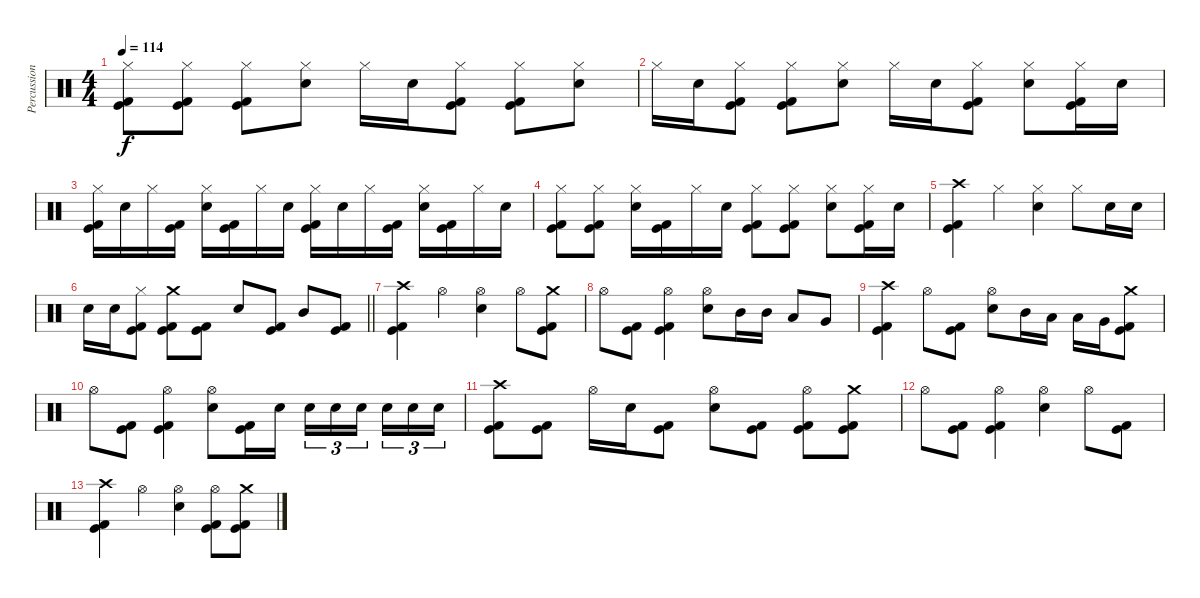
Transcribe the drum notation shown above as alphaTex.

\track ("Percussion" "Percussion") {instrument percussion}
\staff {score}
\articulation defaults
\ts (4 4)
\tempo 114
\clef neutral
\ks c
("Hi-Hat (closed)" "Kick (hit)" "Kick (hit) 2").8{dy f} ("Hi-Hat (closed)" "Kick (hit)" "Kick (hit) 2").8 ("Hi-Hat (closed)" "Kick (hit)" "Kick (hit) 2").8 ("Hi-Hat (closed)" "Electric Snare (hit)").8 "Hi-Hat (closed)".16 "Electric Snare (hit)".16 ("Hi-Hat (closed)" "Kick (hit)" "Kick (hit) 2").8 ("Hi-Hat (closed)" "Kick (hit)" "Kick (hit) 2").8 ("Hi-Hat (closed)" "Electric Snare (hit)").8 |
"Hi-Hat (closed)".16 "Electric Snare (hit)".16 ("Hi-Hat (closed)" "Kick (hit)" "Kick (hit) 2").8 ("Hi-Hat (closed)" "Kick (hit)" "Kick (hit) 2").8 ("Hi-Hat (closed)" "Electric Snare (hit)").8 "Hi-Hat (closed)".16 "Electric Snare (hit)".16 ("Hi-Hat (closed)" "Kick (hit)" "Kick (hit) 2").8 ("Hi-Hat (closed)" "Electric Snare (hit)").8 ("Hi-Hat (closed)" "Kick (hit)" "Kick (hit) 2").16 "Electric Snare (hit)".16 |
("Hi-Hat (closed)" "Kick (hit)" "Kick (hit) 2").16 "Electric Snare (hit)".16 "Hi-Hat (closed)".16 ("Kick (hit)" "Kick (hit) 2").16 ("Hi-Hat (closed)" "Electric Snare (hit)").16 ("Kick (hit)" "Kick (hit) 2").16 "Hi-Hat (closed)".16 "Electric Snare (hit)".16 ("Hi-Hat (closed)" "Kick (hit)" "Kick (hit) 2").16 "Electric Snare (hit)".16 "Hi-Hat (closed)".16 ("Kick (hit)" "Kick (hit) 2").16 ("Hi-Hat (closed)" "Electric Snare (hit)").16 ("Kick (hit)" "Kick (hit) 2").16 "Hi-Hat (closed)".16 "Electric Snare (hit)".16 |
("Hi-Hat (closed)" "Kick (hit)" "Kick (hit) 2").8 ("Hi-Hat (closed)" "Kick (hit)" "Kick (hit) 2").8 ("Hi-Hat (closed)" "Electric Snare (hit)").16 ("Kick (hit)" "Kick (hit) 2").16 "Hi-Hat (closed)".16 "Electric Snare (hit)".16 ("Hi-Hat (closed)" "Kick (hit)" "Kick (hit) 2").8 ("Hi-Hat (closed)" "Kick (hit)" "Kick (hit) 2").8 ("Hi-Hat (closed)" "Electric Snare (hit)").8 ("Hi-Hat (closed)" "Kick (hit)" "Kick (hit) 2").16 "Electric Snare (hit)".16 |
("Crash high (hit)" "Kick (hit)" "Kick (hit) 2").4 "Hi-Hat (closed)".4 ("Hi-Hat (closed)" "Electric Snare (hit)").4 "Hi-Hat (closed)".8 "Electric Snare (hit)".16 "Electric Snare (hit)".16 |
\barLineRight lightlight "Electric Snare (hit)".16 "Electric Snare (hit)".16
("Hi-Hat (closed)" "Kick (hit)" "Kick (hit) 2").8 ("Crash medium (hit)" "Kick (hit)" "Kick (hit) 2").8 ("Kick (hit)" "Kick (hit) 2").8 "Electric Snare (hit)".8 ("Kick (hit)" "Kick (hit) 2").8 "Mid Tom (hit)".8 ("Kick (hit)" "Kick (hit) 2").8 |
\section ("" "")
("Crash high (hit)" "Kick (hit)" "Kick (hit) 2").4 "Hi-Hat (open)".4 ("Hi-Hat (open)" "Electric Snare (hit)").4 "Hi-Hat (open)".8 ("Crash medium (hit)" "Kick (hit)" "Kick (hit) 2").8 |
"Hi-Hat (open)".8 ("Kick (hit)" "Kick (hit) 2").8 ("Hi-Hat (open)" "Kick (hit)" "Kick (hit) 2").4 ("Hi-Hat (open)" "Electric Snare (hit)").8 "Mid Tom (hit)".16 "Mid Tom (hit)".16 "Low Tom (hit)".8 "Very Low Tom (hit)".8 |
("Crash high (hit)" "Kick (hit)" "Kick (hit) 2").4 "Hi-Hat (open)".8 ("Kick (hit)" "Kick (hit) 2").8 ("Hi-Hat (open)" "Electric Snare (hit)").8 "Mid Tom (hit)".16 "Low Tom (hit)".16 "Low Tom (hit)".16 "Very Low Tom (hit)".16 ("Crash medium (hit)" "Kick (hit)" "Kick (hit) 2").8 |
"Hi-Hat (open)".8 ("Kick (hit)" "Kick (hit) 2").8 ("Hi-Hat (open)" "Kick (hit)" "Kick (hit) 2").4 ("Hi-Hat (open)" "Electric Snare (hit)").8 ("Kick (hit)" "Kick (hit) 2").16 "Electric Snare (hit)".16 "Electric Snare (hit)".16{tu (3 2)} "Electric Snare (hit)".16{tu (3 2)} "Electric Snare (hit)".16{tu (3 2) beam splitsecondary} "Electric Snare (hit)".16{tu (3 2)} "Electric Snare (hit)".16{tu (3 2)} "Electric Snare (hit)".16{tu (3 2)} |
("Crash high (hit)" "Kick (hit)" "Kick (hit) 2").8 ("Kick (hit)" "Kick (hit) 2").8 "Hi-Hat (open)".16 "Electric Snare (hit)".16 ("Kick (hit)" "Kick (hit) 2").8 ("Hi-Hat (open)" "Electric Snare (hit)").8 ("Kick (hit)" "Kick (hit) 2").8 ("Hi-Hat (open)" "Kick (hit)" "Kick (hit) 2").8 ("Crash medium (hit)" "Kick (hit)" "Kick (hit) 2").8 |
"Hi-Hat (open)".8 ("Kick (hit)" "Kick (hit) 2").8 ("Hi-Hat (open)" "Kick (hit)" "Kick (hit) 2").4 ("Hi-Hat (open)" "Electric Snare (hit)").4 "Hi-Hat (open)".8 ("Kick (hit)" "Kick (hit) 2").8 |
("Crash high (hit)" "Kick (hit)" "Kick (hit) 2").4 "Hi-Hat (open)".4 ("Hi-Hat (open)" "Electric Snare (hit)").4 ("Hi-Hat (open)" "Kick (hit)" "Kick (hit) 2").8 ("Crash medium (hit)" "Kick (hit)" "Kick (hit) 2").8
